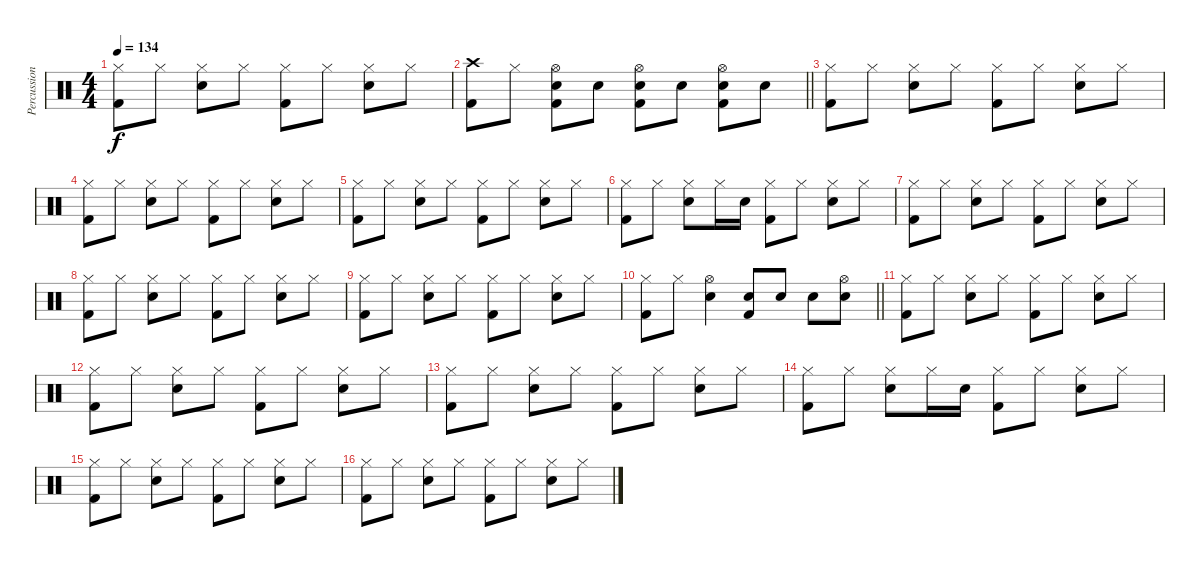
\track ("Percussion" "Percussion") {instrument percussion}
\staff {score}
\articulation defaults
\ts (4 4)
\tempo 134
\clef neutral
\ks c
("Hi-Hat (closed)" "Kick (hit) 2").8{dy f} "Hi-Hat (closed)".8 ("Hi-Hat (closed)" "Snare (hit) 2").8 "Hi-Hat (closed)".8 ("Hi-Hat (closed)" "Kick (hit) 2").8 "Hi-Hat (closed)".8 ("Hi-Hat (closed)" "Snare (hit) 2").8 "Hi-Hat (closed)".8 |
\barLineRight lightlight
("Crash high (hit)" "Kick (hit) 2").8 "Hi-Hat (closed)".8 ("Hi-Hat (open)" "Snare (hit) 2" "Kick (hit) 2").8 "Snare (hit) 2".8 ("Hi-Hat (open)" "Snare (hit) 2" "Kick (hit) 2").8 "Snare (hit) 2".8 ("Hi-Hat (open)" "Snare (hit) 2" "Kick (hit) 2").8 "Snare (hit) 2".8 |
("Hi-Hat (closed)" "Kick (hit) 2").8 "Hi-Hat (closed)".8 ("Hi-Hat (closed)" "Snare (hit) 2").8 "Hi-Hat (closed)".8 ("Hi-Hat (closed)" "Kick (hit) 2").8 "Hi-Hat (closed)".8 ("Hi-Hat (closed)" "Snare (hit) 2").8 "Hi-Hat (closed)".8 |
("Hi-Hat (closed)" "Kick (hit) 2").8 "Hi-Hat (closed)".8 ("Hi-Hat (closed)" "Snare (hit) 2").8 "Hi-Hat (closed)".8 ("Hi-Hat (closed)" "Kick (hit) 2").8 "Hi-Hat (closed)".8 ("Hi-Hat (closed)" "Snare (hit) 2").8 "Hi-Hat (closed)".8 |
("Hi-Hat (closed)" "Kick (hit) 2").8 "Hi-Hat (closed)".8 ("Hi-Hat (closed)" "Snare (hit) 2").8 "Hi-Hat (closed)".8 ("Hi-Hat (closed)" "Kick (hit) 2").8 "Hi-Hat (closed)".8 ("Hi-Hat (closed)" "Snare (hit) 2").8 "Hi-Hat (closed)".8 |
("Hi-Hat (closed)" "Kick (hit) 2").8 "Hi-Hat (closed)".8 ("Hi-Hat (closed)" "Snare (hit) 2").8 "Hi-Hat (closed)".16 "Snare (hit) 2".16 ("Hi-Hat (closed)" "Kick (hit) 2").8 "Hi-Hat (closed)".8 ("Hi-Hat (closed)" "Snare (hit) 2").8 "Hi-Hat (closed)".8 |
("Hi-Hat (closed)" "Kick (hit) 2").8 "Hi-Hat (closed)".8 ("Hi-Hat (closed)" "Snare (hit) 2").8 "Hi-Hat (closed)".8 ("Hi-Hat (closed)" "Kick (hit) 2").8 "Hi-Hat (closed)".8 ("Hi-Hat (closed)" "Snare (hit) 2").8 "Hi-Hat (closed)".8 |
("Hi-Hat (closed)" "Kick (hit) 2").8 "Hi-Hat (closed)".8 ("Hi-Hat (closed)" "Snare (hit) 2").8 "Hi-Hat (closed)".8 ("Hi-Hat (closed)" "Kick (hit) 2").8 "Hi-Hat (closed)".8 ("Hi-Hat (closed)" "Snare (hit) 2").8 "Hi-Hat (closed)".8 |
("Hi-Hat (closed)" "Kick (hit) 2").8 "Hi-Hat (closed)".8 ("Hi-Hat (closed)" "Snare (hit) 2").8 "Hi-Hat (closed)".8 ("Hi-Hat (closed)" "Kick (hit) 2").8 "Hi-Hat (closed)".8 ("Hi-Hat (closed)" "Snare (hit) 2").8 "Hi-Hat (closed)".8 |
\barLineRight lightlight
("Hi-Hat (closed)" "Kick (hit) 2").8 "Hi-Hat (closed)".8 ("Hi-Hat (open)" "Snare (hit) 2").4 ("Snare (hit) 2" "Kick (hit) 2").8 "Snare (hit) 2".8 "Snare (hit) 2".8 ("Hi-Hat (open)" "Snare (hit) 2").8 |
("Hi-Hat (closed)" "Kick (hit) 2").8 "Hi-Hat (closed)".8 ("Hi-Hat (closed)" "Snare (hit) 2").8 "Hi-Hat (closed)".8 ("Hi-Hat (closed)" "Kick (hit) 2").8 "Hi-Hat (closed)".8 ("Hi-Hat (closed)" "Snare (hit) 2").8 "Hi-Hat (closed)".8 |
("Hi-Hat (closed)" "Kick (hit) 2").8 "Hi-Hat (closed)".8 ("Hi-Hat (closed)" "Snare (hit) 2").8 "Hi-Hat (closed)".8 ("Hi-Hat (closed)" "Kick (hit) 2").8 "Hi-Hat (closed)".8 ("Hi-Hat (closed)" "Snare (hit) 2").8 "Hi-Hat (closed)".8 |
("Hi-Hat (closed)" "Kick (hit) 2").8 "Hi-Hat (closed)".8 ("Hi-Hat (closed)" "Snare (hit) 2").8 "Hi-Hat (closed)".8 ("Hi-Hat (closed)" "Kick (hit) 2").8 "Hi-Hat (closed)".8 ("Hi-Hat (closed)" "Snare (hit) 2").8 "Hi-Hat (closed)".8 |
("Hi-Hat (closed)" "Kick (hit) 2").8 "Hi-Hat (closed)".8 ("Hi-Hat (closed)" "Snare (hit) 2").8 "Hi-Hat (closed)".16 "Snare (hit) 2".16 ("Hi-Hat (closed)" "Kick (hit) 2").8 "Hi-Hat (closed)".8 ("Hi-Hat (closed)" "Snare (hit) 2").8 "Hi-Hat (closed)".8 |
("Hi-Hat (closed)" "Kick (hit) 2").8 "Hi-Hat (closed)".8 ("Hi-Hat (closed)" "Snare (hit) 2").8 "Hi-Hat (closed)".8 ("Hi-Hat (closed)" "Kick (hit) 2").8 "Hi-Hat (closed)".8 ("Hi-Hat (closed)" "Snare (hit) 2").8 "Hi-Hat (closed)".8 |
("Hi-Hat (closed)" "Kick (hit) 2").8 "Hi-Hat (closed)".8 ("Hi-Hat (closed)" "Snare (hit) 2").8 "Hi-Hat (closed)".8 ("Hi-Hat (closed)" "Kick (hit) 2").8 "Hi-Hat (closed)".8 ("Hi-Hat (closed)" "Snare (hit) 2").8 "Hi-Hat (closed)".8
